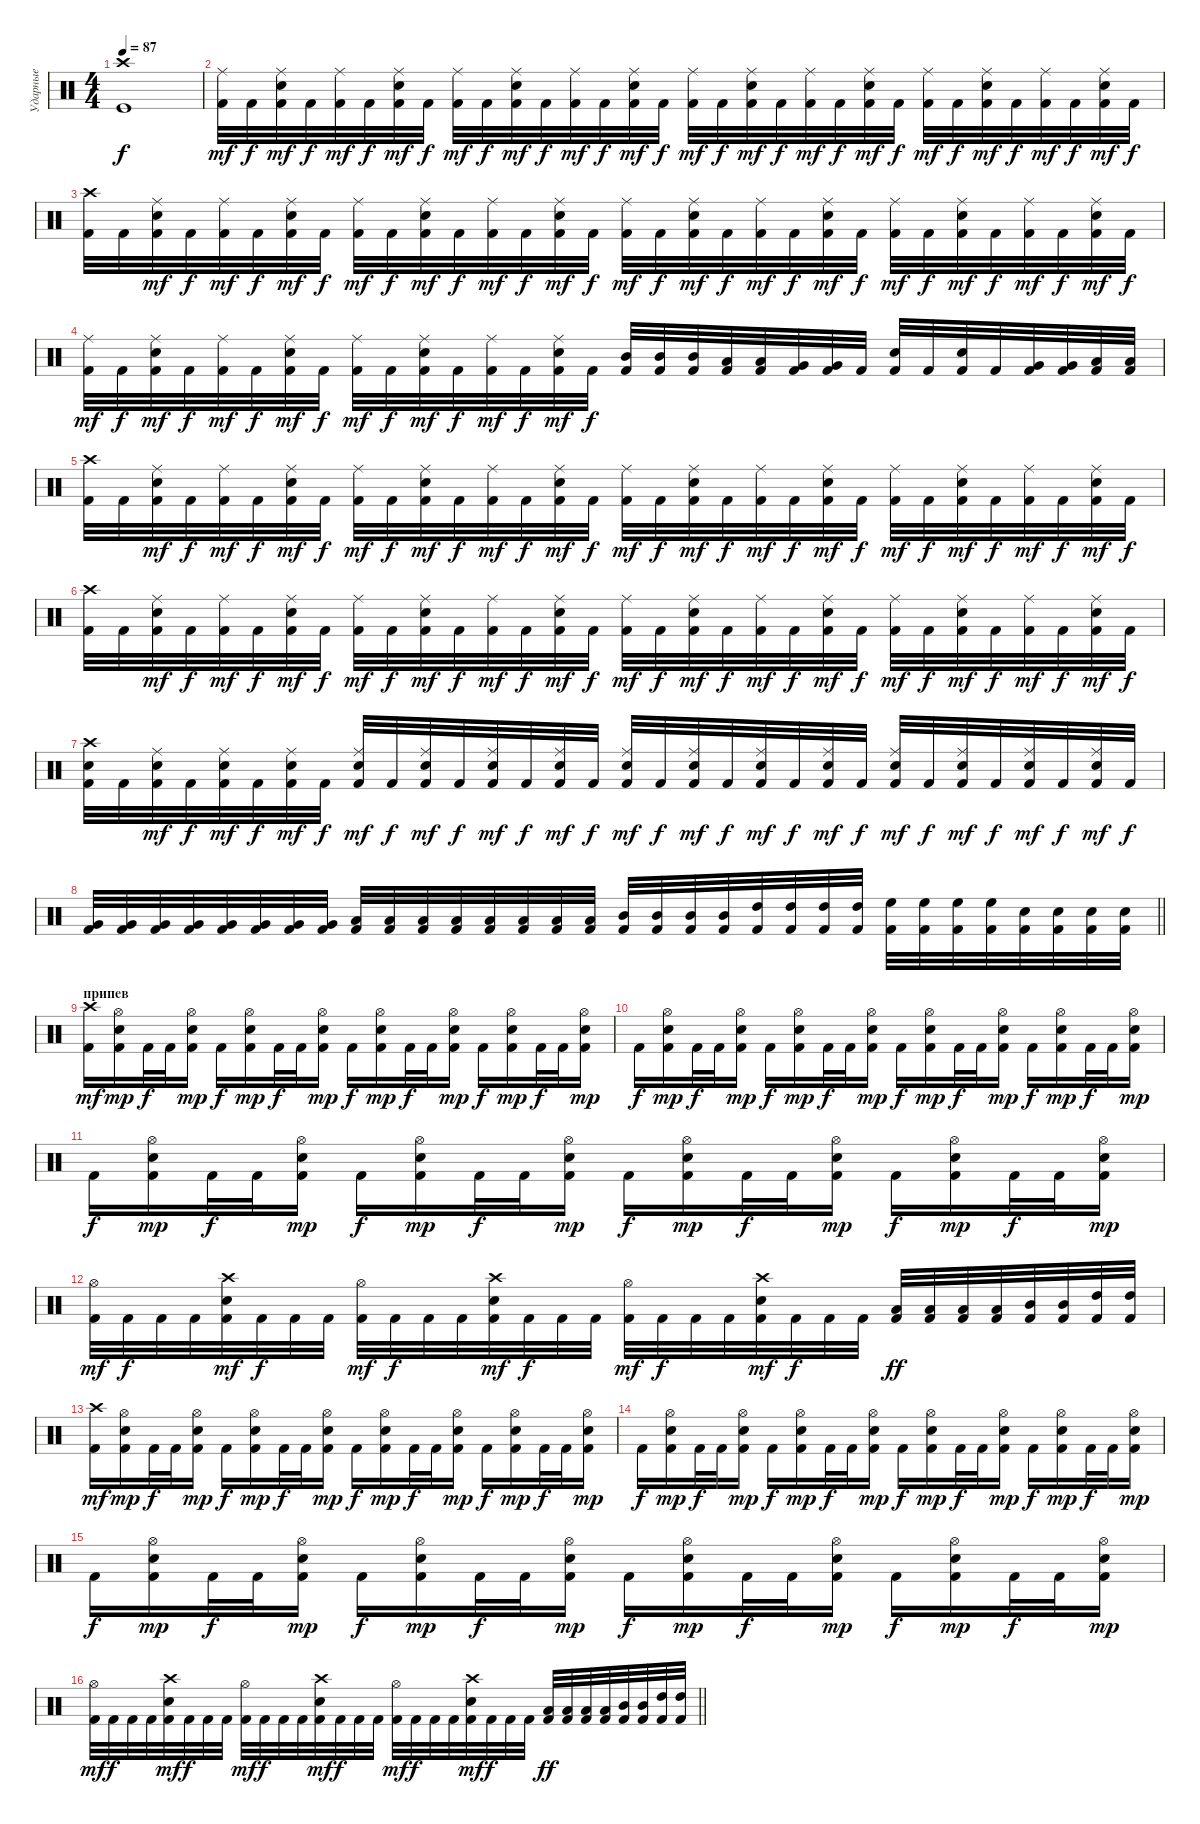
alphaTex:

\track ("Ударные" "Ударные") {instrument percussion}
\staff {score}
\articulation defaults
\ts (4 4)
\tempo 87
\clef neutral
\ks c
("Kick (hit)" "Crash high (hit)").1{dy f} |
("Kick (hit) 2" "Ride (middle)").32{dy mf} "Kick (hit) 2".32{dy f} ("Kick (hit) 2" "Electric Snare (hit)" "Ride (middle)").32{dy mf} "Kick (hit) 2".32{dy f} ("Kick (hit) 2" "Ride (middle)").32{dy mf} "Kick (hit) 2".32{dy f} ("Kick (hit) 2" "Electric Snare (hit)" "Ride (middle)").32{dy mf} "Kick (hit) 2".32{dy f} ("Kick (hit) 2" "Ride (middle)").32{dy mf} "Kick (hit) 2".32{dy f} ("Kick (hit) 2" "Electric Snare (hit)" "Ride (middle)").32{dy mf} "Kick (hit) 2".32{dy f} ("Kick (hit) 2" "Ride (middle)").32{dy mf} "Kick (hit) 2".32{dy f} ("Kick (hit) 2" "Electric Snare (hit)" "Ride (middle)").32{dy mf} "Kick (hit) 2".32{dy f} ("Kick (hit) 2" "Ride (middle)").32{dy mf} "Kick (hit) 2".32{dy f} ("Kick (hit) 2" "Electric Snare (hit)" "Ride (middle)").32{dy mf} "Kick (hit) 2".32{dy f} ("Kick (hit) 2" "Ride (middle)").32{dy mf} "Kick (hit) 2".32{dy f} ("Kick (hit) 2" "Electric Snare (hit)" "Ride (middle)").32{dy mf} "Kick (hit) 2".32{dy f} ("Kick (hit) 2" "Ride (middle)").32{dy mf} "Kick (hit) 2".32{dy f} ("Kick (hit) 2" "Electric Snare (hit)" "Ride (middle)").32{dy mf} "Kick (hit) 2".32{dy f} ("Kick (hit) 2" "Ride (middle)").32{dy mf} "Kick (hit) 2".32{dy f} ("Kick (hit) 2" "Electric Snare (hit)" "Ride (middle)").32{dy mf} "Kick (hit) 2".32{dy f} |
("Kick (hit) 2" "Crash high (hit)").32 "Kick (hit) 2".32 ("Kick (hit) 2" "Electric Snare (hit)" "Ride (middle)").32{dy mf} "Kick (hit) 2".32{dy f} ("Kick (hit) 2" "Ride (middle)").32{dy mf} "Kick (hit) 2".32{dy f} ("Kick (hit) 2" "Electric Snare (hit)" "Ride (middle)").32{dy mf} "Kick (hit) 2".32{dy f} ("Kick (hit) 2" "Ride (middle)").32{dy mf} "Kick (hit) 2".32{dy f} ("Kick (hit) 2" "Electric Snare (hit)" "Ride (middle)").32{dy mf} "Kick (hit) 2".32{dy f} ("Kick (hit) 2" "Ride (middle)").32{dy mf} "Kick (hit) 2".32{dy f} ("Kick (hit) 2" "Electric Snare (hit)" "Ride (middle)").32{dy mf} "Kick (hit) 2".32{dy f} ("Kick (hit) 2" "Ride (middle)").32{dy mf} "Kick (hit) 2".32{dy f} ("Kick (hit) 2" "Electric Snare (hit)" "Ride (middle)").32{dy mf} "Kick (hit) 2".32{dy f} ("Kick (hit) 2" "Ride (middle)").32{dy mf} "Kick (hit) 2".32{dy f} ("Kick (hit) 2" "Electric Snare (hit)" "Ride (middle)").32{dy mf} "Kick (hit) 2".32{dy f} ("Kick (hit) 2" "Ride (middle)").32{dy mf} "Kick (hit) 2".32{dy f} ("Kick (hit) 2" "Electric Snare (hit)" "Ride (middle)").32{dy mf} "Kick (hit) 2".32{dy f} ("Kick (hit) 2" "Ride (middle)").32{dy mf} "Kick (hit) 2".32{dy f} ("Kick (hit) 2" "Electric Snare (hit)" "Ride (middle)").32{dy mf} "Kick (hit) 2".32{dy f} |
("Kick (hit) 2" "Ride (middle)").32{dy mf} "Kick (hit) 2".32{dy f} ("Kick (hit) 2" "Electric Snare (hit)" "Ride (middle)").32{dy mf} "Kick (hit) 2".32{dy f} ("Kick (hit) 2" "Ride (middle)").32{dy mf} "Kick (hit) 2".32{dy f} ("Kick (hit) 2" "Electric Snare (hit)" "Ride (middle)").32{dy mf} "Kick (hit) 2".32{dy f} ("Kick (hit) 2" "Ride (middle)").32{dy mf} "Kick (hit) 2".32{dy f} ("Kick (hit) 2" "Electric Snare (hit)" "Ride (middle)").32{dy mf} "Kick (hit) 2".32{dy f} ("Kick (hit) 2" "Ride (middle)").32{dy mf} "Kick (hit) 2".32{dy f} ("Kick (hit) 2" "Electric Snare (hit)" "Ride (middle)").32{dy mf} "Kick (hit) 2".32{dy f} ("Kick (hit) 2" "Mid Tom (hit)").32 ("Kick (hit) 2" "Mid Tom (hit)").32 ("Kick (hit) 2" "Mid Tom (hit)").32 ("Kick (hit) 2" "Low Tom (hit)").32 ("Kick (hit) 2" "Low Tom (hit)").32 ("Kick (hit) 2" "Very Low Tom (hit)").32 ("Kick (hit) 2" "Very Low Tom (hit)").32 "Kick (hit) 2".32 ("Kick (hit) 2" "Electric Snare (hit)").32 "Kick (hit) 2".32 ("Kick (hit) 2" "Electric Snare (hit)").32 "Kick (hit) 2".32 ("Kick (hit) 2" "Very Low Tom (hit)").32 ("Kick (hit) 2" "Very Low Tom (hit)").32 ("Kick (hit) 2" "Low Floor Tom (hit)").32 ("Kick (hit) 2" "Low Floor Tom (hit)").32 |
("Kick (hit) 2" "Crash high (hit)").32 "Kick (hit) 2".32 ("Kick (hit) 2" "Electric Snare (hit)" "Ride (middle)").32{dy mf} "Kick (hit) 2".32{dy f} ("Kick (hit) 2" "Ride (middle)").32{dy mf} "Kick (hit) 2".32{dy f} ("Kick (hit) 2" "Electric Snare (hit)" "Ride (middle)").32{dy mf} "Kick (hit) 2".32{dy f} ("Kick (hit) 2" "Ride (middle)").32{dy mf} "Kick (hit) 2".32{dy f} ("Kick (hit) 2" "Electric Snare (hit)" "Ride (middle)").32{dy mf} "Kick (hit) 2".32{dy f} ("Kick (hit) 2" "Ride (middle)").32{dy mf} "Kick (hit) 2".32{dy f} ("Kick (hit) 2" "Electric Snare (hit)" "Ride (middle)").32{dy mf} "Kick (hit) 2".32{dy f} ("Kick (hit) 2" "Ride (middle)").32{dy mf} "Kick (hit) 2".32{dy f} ("Kick (hit) 2" "Electric Snare (hit)" "Ride (middle)").32{dy mf} "Kick (hit) 2".32{dy f} ("Kick (hit) 2" "Ride (middle)").32{dy mf} "Kick (hit) 2".32{dy f} ("Kick (hit) 2" "Electric Snare (hit)" "Ride (middle)").32{dy mf} "Kick (hit) 2".32{dy f} ("Kick (hit) 2" "Ride (middle)").32{dy mf} "Kick (hit) 2".32{dy f} ("Kick (hit) 2" "Electric Snare (hit)" "Ride (middle)").32{dy mf} "Kick (hit) 2".32{dy f} ("Kick (hit) 2" "Ride (middle)").32{dy mf} "Kick (hit) 2".32{dy f} ("Kick (hit) 2" "Electric Snare (hit)" "Ride (middle)").32{dy mf} "Kick (hit) 2".32{dy f} |
("Kick (hit) 2" "Crash high (hit)").32 "Kick (hit) 2".32 ("Kick (hit) 2" "Electric Snare (hit)" "Ride (middle)").32{dy mf} "Kick (hit) 2".32{dy f} ("Kick (hit) 2" "Ride (middle)").32{dy mf} "Kick (hit) 2".32{dy f} ("Kick (hit) 2" "Electric Snare (hit)" "Ride (middle)").32{dy mf} "Kick (hit) 2".32{dy f} ("Kick (hit) 2" "Ride (middle)").32{dy mf} "Kick (hit) 2".32{dy f} ("Kick (hit) 2" "Electric Snare (hit)" "Ride (middle)").32{dy mf} "Kick (hit) 2".32{dy f} ("Kick (hit) 2" "Ride (middle)").32{dy mf} "Kick (hit) 2".32{dy f} ("Kick (hit) 2" "Electric Snare (hit)" "Ride (middle)").32{dy mf} "Kick (hit) 2".32{dy f} ("Kick (hit) 2" "Ride (middle)").32{dy mf} "Kick (hit) 2".32{dy f} ("Kick (hit) 2" "Electric Snare (hit)" "Ride (middle)").32{dy mf} "Kick (hit) 2".32{dy f} ("Kick (hit) 2" "Ride (middle)").32{dy mf} "Kick (hit) 2".32{dy f} ("Kick (hit) 2" "Electric Snare (hit)" "Ride (middle)").32{dy mf} "Kick (hit) 2".32{dy f} ("Kick (hit) 2" "Ride (middle)").32{dy mf} "Kick (hit) 2".32{dy f} ("Kick (hit) 2" "Electric Snare (hit)" "Ride (middle)").32{dy mf} "Kick (hit) 2".32{dy f} ("Kick (hit) 2" "Ride (middle)").32{dy mf} "Kick (hit) 2".32{dy f} ("Kick (hit) 2" "Electric Snare (hit)" "Ride (middle)").32{dy mf} "Kick (hit) 2".32{dy f} |
("Kick (hit) 2" "Electric Snare (hit)" "Crash high (hit)").32 "Kick (hit) 2".32 ("Kick (hit) 2" "Electric Snare (hit)" "Ride (middle)").32{dy mf} "Kick (hit) 2".32{dy f} ("Kick (hit) 2" "Electric Snare (hit)" "Ride (middle)").32{dy mf} "Kick (hit) 2".32{dy f} ("Kick (hit) 2" "Electric Snare (hit)" "Ride (middle)").32{dy mf} "Kick (hit) 2".32{dy f} ("Kick (hit) 2" "Electric Snare (hit)" "Ride (middle)").32{dy mf} "Kick (hit) 2".32{dy f} ("Kick (hit) 2" "Electric Snare (hit)" "Ride (middle)").32{dy mf} "Kick (hit) 2".32{dy f} ("Kick (hit) 2" "Electric Snare (hit)" "Ride (middle)").32{dy mf} "Kick (hit) 2".32{dy f} ("Kick (hit) 2" "Electric Snare (hit)" "Ride (middle)").32{dy mf} "Kick (hit) 2".32{dy f} ("Kick (hit) 2" "Electric Snare (hit)" "Ride (middle)").32{dy mf} "Kick (hit) 2".32{dy f} ("Kick (hit) 2" "Electric Snare (hit)" "Ride (middle)").32{dy mf} "Kick (hit) 2".32{dy f} ("Kick (hit) 2" "Electric Snare (hit)" "Ride (middle)").32{dy mf} "Kick (hit) 2".32{dy f} ("Kick (hit) 2" "Electric Snare (hit)" "Ride (middle)").32{dy mf} "Kick (hit) 2".32{dy f} ("Kick (hit) 2" "Electric Snare (hit)" "Ride (middle)").32{dy mf} "Kick (hit) 2".32{dy f} ("Kick (hit) 2" "Electric Snare (hit)" "Ride (middle)").32{dy mf} "Kick (hit) 2".32{dy f} ("Kick (hit) 2" "Electric Snare (hit)" "Ride (middle)").32{dy mf} "Kick (hit) 2".32{dy f} ("Kick (hit) 2" "Electric Snare (hit)" "Ride (middle)").32{dy mf} "Kick (hit) 2".32{dy f} |
\barLineRight lightlight
("Kick (hit) 2" "Very Low Tom (hit)").32 ("Kick (hit) 2" "Very Low Tom (hit)").32 ("Kick (hit) 2" "Very Low Tom (hit)").32 ("Kick (hit) 2" "Very Low Tom (hit)").32 ("Kick (hit) 2" "Very Low Tom (hit)").32 ("Kick (hit) 2" "Very Low Tom (hit)").32 ("Kick (hit) 2" "Very Low Tom (hit)").32 ("Kick (hit) 2" "Very Low Tom (hit)").32 ("Kick (hit) 2" "Low Tom (hit)").32 ("Kick (hit) 2" "Low Tom (hit)").32 ("Kick (hit) 2" "Low Tom (hit)").32 ("Kick (hit) 2" "Low Tom (hit)").32 ("Kick (hit) 2" "Low Tom (hit)").32 ("Kick (hit) 2" "Low Tom (hit)").32 ("Kick (hit) 2" "Low Tom (hit)").32 ("Kick (hit) 2" "Low Tom (hit)").32 ("Kick (hit) 2" "Mid Tom (hit)").32 ("Kick (hit) 2" "Mid Tom (hit)").32 ("Kick (hit) 2" "Mid Tom (hit)").32 ("Kick (hit) 2" "Mid Tom (hit)").32 ("Kick (hit) 2" "High Tom (hit)").32 ("Kick (hit) 2" "High Tom (hit)").32 ("Kick (hit) 2" "High Tom (hit)").32 ("Kick (hit) 2" "High Tom (hit)").32 ("Kick (hit) 2" "High Floor Tom (hit)").32 ("Kick (hit) 2" "High Floor Tom (hit)").32 ("Kick (hit) 2" "High Floor Tom (hit)").32 ("Kick (hit) 2" "High Floor Tom (hit)").32 ("Kick (hit) 2" "Electric Snare (hit)").32 ("Kick (hit) 2" "Electric Snare (hit)").32 ("Kick (hit) 2" "Electric Snare (hit)").32 ("Kick (hit) 2" "Electric Snare (hit)").32 |
\section ("" "припев")
("Kick (hit) 2" "Crash high (hit)").16{dy mf} ("Kick (hit) 2" "Electric Snare (hit)" "Hi-Hat (open)").16{dy mp} "Kick (hit) 2".32{dy f} "Kick (hit) 2".32 ("Kick (hit) 2" "Electric Snare (hit)" "Hi-Hat (open)").16{dy mp} "Kick (hit) 2".16{dy f} ("Kick (hit) 2" "Electric Snare (hit)" "Hi-Hat (open)").16{dy mp} "Kick (hit) 2".32{dy f} "Kick (hit) 2".32 ("Kick (hit) 2" "Electric Snare (hit)" "Hi-Hat (open)").16{dy mp} "Kick (hit) 2".16{dy f} ("Kick (hit) 2" "Electric Snare (hit)" "Hi-Hat (open)").16{dy mp} "Kick (hit) 2".32{dy f} "Kick (hit) 2".32 ("Kick (hit) 2" "Electric Snare (hit)" "Hi-Hat (open)").16{dy mp} "Kick (hit) 2".16{dy f} ("Kick (hit) 2" "Electric Snare (hit)" "Hi-Hat (open)").16{dy mp} "Kick (hit) 2".32{dy f} "Kick (hit) 2".32 ("Kick (hit) 2" "Electric Snare (hit)" "Hi-Hat (open)").16{dy mp} |
"Kick (hit) 2".16{dy f} ("Kick (hit) 2" "Electric Snare (hit)" "Hi-Hat (open)").16{dy mp} "Kick (hit) 2".32{dy f} "Kick (hit) 2".32 ("Kick (hit) 2" "Electric Snare (hit)" "Hi-Hat (open)").16{dy mp} "Kick (hit) 2".16{dy f} ("Kick (hit) 2" "Electric Snare (hit)" "Hi-Hat (open)").16{dy mp} "Kick (hit) 2".32{dy f} "Kick (hit) 2".32 ("Kick (hit) 2" "Electric Snare (hit)" "Hi-Hat (open)").16{dy mp} "Kick (hit) 2".16{dy f} ("Kick (hit) 2" "Electric Snare (hit)" "Hi-Hat (open)").16{dy mp} "Kick (hit) 2".32{dy f} "Kick (hit) 2".32 ("Kick (hit) 2" "Electric Snare (hit)" "Hi-Hat (open)").16{dy mp} "Kick (hit) 2".16{dy f} ("Kick (hit) 2" "Electric Snare (hit)" "Hi-Hat (open)").16{dy mp} "Kick (hit) 2".32{dy f} "Kick (hit) 2".32 ("Kick (hit) 2" "Electric Snare (hit)" "Hi-Hat (open)").16{dy mp} |
"Kick (hit) 2".16{dy f} ("Kick (hit) 2" "Electric Snare (hit)" "Hi-Hat (open)").16{dy mp} "Kick (hit) 2".32{dy f} "Kick (hit) 2".32 ("Kick (hit) 2" "Electric Snare (hit)" "Hi-Hat (open)").16{dy mp} "Kick (hit) 2".16{dy f} ("Kick (hit) 2" "Electric Snare (hit)" "Hi-Hat (open)").16{dy mp} "Kick (hit) 2".32{dy f} "Kick (hit) 2".32 ("Kick (hit) 2" "Electric Snare (hit)" "Hi-Hat (open)").16{dy mp} "Kick (hit) 2".16{dy f} ("Kick (hit) 2" "Electric Snare (hit)" "Hi-Hat (open)").16{dy mp} "Kick (hit) 2".32{dy f} "Kick (hit) 2".32 ("Kick (hit) 2" "Electric Snare (hit)" "Hi-Hat (open)").16{dy mp} "Kick (hit) 2".16{dy f} ("Kick (hit) 2" "Electric Snare (hit)" "Hi-Hat (open)").16{dy mp} "Kick (hit) 2".32{dy f} "Kick (hit) 2".32 ("Kick (hit) 2" "Electric Snare (hit)" "Hi-Hat (open)").16{dy mp} |
("Kick (hit) 2" "Hi-Hat (open)").32{dy mf} "Kick (hit) 2".32{dy f} "Kick (hit) 2".32 "Kick (hit) 2".32 ("Kick (hit) 2" "Electric Snare (hit)" "Crash high (hit)").32{dy mf} "Kick (hit) 2".32{dy f} "Kick (hit) 2".32 "Kick (hit) 2".32 ("Kick (hit) 2" "Hi-Hat (open)").32{dy mf} "Kick (hit) 2".32{dy f} "Kick (hit) 2".32 "Kick (hit) 2".32 ("Kick (hit) 2" "Electric Snare (hit)" "Crash high (hit)").32{dy mf} "Kick (hit) 2".32{dy f} "Kick (hit) 2".32 "Kick (hit) 2".32 ("Kick (hit) 2" "Hi-Hat (open)").32{dy mf} "Kick (hit) 2".32{dy f} "Kick (hit) 2".32 "Kick (hit) 2".32 ("Kick (hit) 2" "Electric Snare (hit)" "Crash high (hit)").32{dy mf} "Kick (hit) 2".32{dy f} "Kick (hit) 2".32 "Kick (hit) 2".32 ("Kick (hit) 2" "Low Tom (hit)").32{dy ff} ("Kick (hit) 2" "Low Tom (hit)").32 ("Kick (hit) 2" "Low Tom (hit)").32 ("Kick (hit) 2" "Low Tom (hit)").32 ("Kick (hit) 2" "Mid Tom (hit)").32 ("Kick (hit) 2" "Mid Tom (hit)").32 ("Kick (hit) 2" "High Tom (hit)").32 ("Kick (hit) 2" "High Tom (hit)").32 |
("Kick (hit) 2" "Crash high (hit)").16{dy mf} ("Kick (hit) 2" "Electric Snare (hit)" "Hi-Hat (open)").16{dy mp} "Kick (hit) 2".32{dy f} "Kick (hit) 2".32 ("Kick (hit) 2" "Electric Snare (hit)" "Hi-Hat (open)").16{dy mp} "Kick (hit) 2".16{dy f} ("Kick (hit) 2" "Electric Snare (hit)" "Hi-Hat (open)").16{dy mp} "Kick (hit) 2".32{dy f} "Kick (hit) 2".32 ("Kick (hit) 2" "Electric Snare (hit)" "Hi-Hat (open)").16{dy mp} "Kick (hit) 2".16{dy f} ("Kick (hit) 2" "Electric Snare (hit)" "Hi-Hat (open)").16{dy mp} "Kick (hit) 2".32{dy f} "Kick (hit) 2".32 ("Kick (hit) 2" "Electric Snare (hit)" "Hi-Hat (open)").16{dy mp} "Kick (hit) 2".16{dy f} ("Kick (hit) 2" "Electric Snare (hit)" "Hi-Hat (open)").16{dy mp} "Kick (hit) 2".32{dy f} "Kick (hit) 2".32 ("Kick (hit) 2" "Electric Snare (hit)" "Hi-Hat (open)").16{dy mp} |
"Kick (hit) 2".16{dy f} ("Kick (hit) 2" "Electric Snare (hit)" "Hi-Hat (open)").16{dy mp} "Kick (hit) 2".32{dy f} "Kick (hit) 2".32 ("Kick (hit) 2" "Electric Snare (hit)" "Hi-Hat (open)").16{dy mp} "Kick (hit) 2".16{dy f} ("Kick (hit) 2" "Electric Snare (hit)" "Hi-Hat (open)").16{dy mp} "Kick (hit) 2".32{dy f} "Kick (hit) 2".32 ("Kick (hit) 2" "Electric Snare (hit)" "Hi-Hat (open)").16{dy mp} "Kick (hit) 2".16{dy f} ("Kick (hit) 2" "Electric Snare (hit)" "Hi-Hat (open)").16{dy mp} "Kick (hit) 2".32{dy f} "Kick (hit) 2".32 ("Kick (hit) 2" "Electric Snare (hit)" "Hi-Hat (open)").16{dy mp} "Kick (hit) 2".16{dy f} ("Kick (hit) 2" "Electric Snare (hit)" "Hi-Hat (open)").16{dy mp} "Kick (hit) 2".32{dy f} "Kick (hit) 2".32 ("Kick (hit) 2" "Electric Snare (hit)" "Hi-Hat (open)").16{dy mp} |
"Kick (hit) 2".16{dy f} ("Kick (hit) 2" "Electric Snare (hit)" "Hi-Hat (open)").16{dy mp} "Kick (hit) 2".32{dy f} "Kick (hit) 2".32 ("Kick (hit) 2" "Electric Snare (hit)" "Hi-Hat (open)").16{dy mp} "Kick (hit) 2".16{dy f} ("Kick (hit) 2" "Electric Snare (hit)" "Hi-Hat (open)").16{dy mp} "Kick (hit) 2".32{dy f} "Kick (hit) 2".32 ("Kick (hit) 2" "Electric Snare (hit)" "Hi-Hat (open)").16{dy mp} "Kick (hit) 2".16{dy f} ("Kick (hit) 2" "Electric Snare (hit)" "Hi-Hat (open)").16{dy mp} "Kick (hit) 2".32{dy f} "Kick (hit) 2".32 ("Kick (hit) 2" "Electric Snare (hit)" "Hi-Hat (open)").16{dy mp} "Kick (hit) 2".16{dy f} ("Kick (hit) 2" "Electric Snare (hit)" "Hi-Hat (open)").16{dy mp} "Kick (hit) 2".32{dy f} "Kick (hit) 2".32 ("Kick (hit) 2" "Electric Snare (hit)" "Hi-Hat (open)").16{dy mp} |
\barLineRight lightlight
("Kick (hit) 2" "Hi-Hat (open)").32{dy mf} "Kick (hit) 2".32{dy f} "Kick (hit) 2".32 "Kick (hit) 2".32 ("Kick (hit) 2" "Electric Snare (hit)" "Crash high (hit)").32{dy mf} "Kick (hit) 2".32{dy f} "Kick (hit) 2".32 "Kick (hit) 2".32 ("Kick (hit) 2" "Hi-Hat (open)").32{dy mf} "Kick (hit) 2".32{dy f} "Kick (hit) 2".32 "Kick (hit) 2".32 ("Kick (hit) 2" "Electric Snare (hit)" "Crash high (hit)").32{dy mf} "Kick (hit) 2".32{dy f} "Kick (hit) 2".32 "Kick (hit) 2".32 ("Kick (hit) 2" "Hi-Hat (open)").32{dy mf} "Kick (hit) 2".32{dy f} "Kick (hit) 2".32 "Kick (hit) 2".32 ("Kick (hit) 2" "Electric Snare (hit)" "Crash high (hit)").32{dy mf} "Kick (hit) 2".32{dy f} "Kick (hit) 2".32 "Kick (hit) 2".32 ("Kick (hit) 2" "Low Tom (hit)").32{dy ff} ("Kick (hit) 2" "Low Tom (hit)").32 ("Kick (hit) 2" "Low Tom (hit)").32 ("Kick (hit) 2" "Low Tom (hit)").32 ("Kick (hit) 2" "Mid Tom (hit)").32 ("Kick (hit) 2" "Mid Tom (hit)").32 ("Kick (hit) 2" "High Tom (hit)").32 ("Kick (hit) 2" "High Tom (hit)").32
